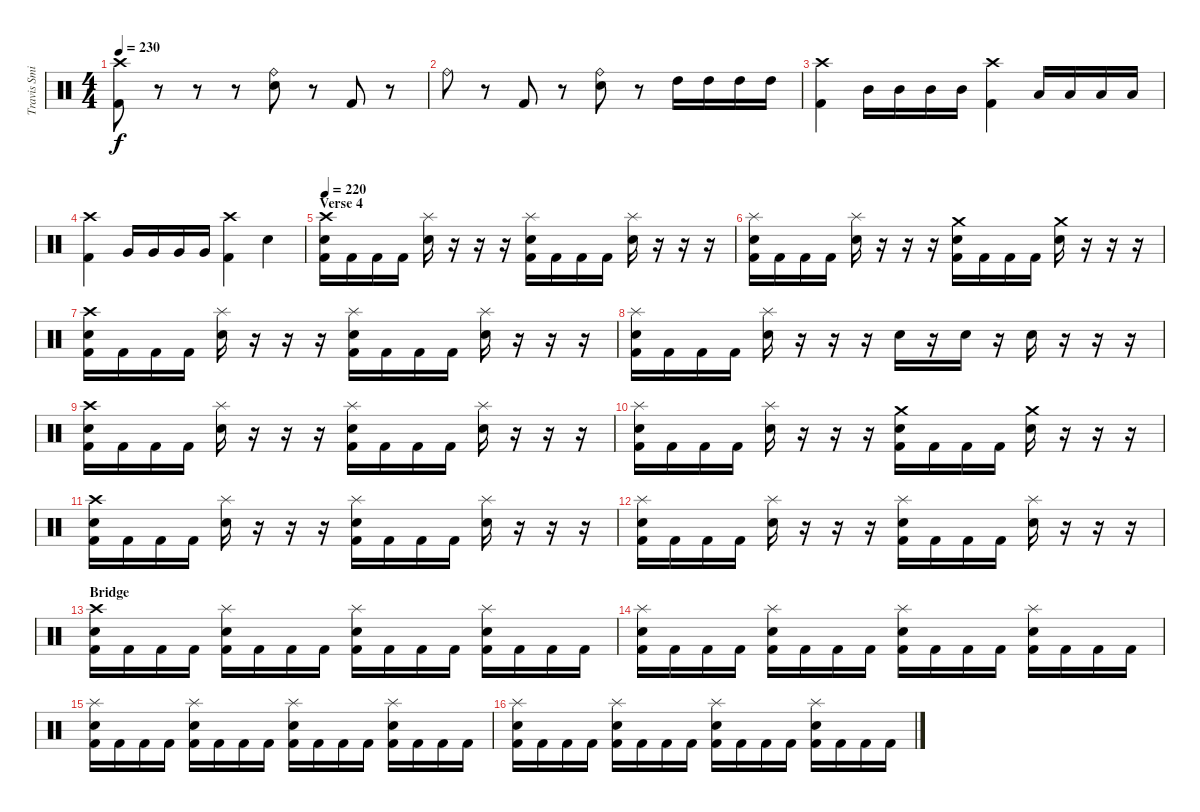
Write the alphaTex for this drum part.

\track ("Travis Smith" "Travis Smi") {instrument percussion}
\staff {score}
\articulation defaults
\ts (4 4)
\tempo 230
\clef neutral
\ks c
("Crash high (hit)" "Kick (hit) 2").8{dy f} r.8 r.8 r.8 ("Ride (bell)" "Electric Snare (hit)").8 r.8 "Kick (hit) 2".8 r.8 |
"Ride (bell)".8 r.8 "Kick (hit) 2".8 r.8 ("Ride (bell)" "Electric Snare (hit)").8 r.8 "High Tom (hit)".16 "High Tom (hit)".16 "High Tom (hit)".16 "High Tom (hit)".16 |
("Crash high (hit)" "Kick (hit) 2").4 "Mid Tom (hit)".16 "Mid Tom (hit)".16 "Mid Tom (hit)".16 "Mid Tom (hit)".16 ("Crash high (hit)" "Kick (hit) 2").4 "Low Tom (hit)".16 "Low Tom (hit)".16 "Low Tom (hit)".16 "Low Tom (hit)".16 |
("Crash high (hit)" "Kick (hit) 2").4 "Very Low Tom (hit)".16 "Very Low Tom (hit)".16 "Very Low Tom (hit)".16 "Very Low Tom (hit)".16 ("Crash high (hit)" "Kick (hit) 2").4 "Electric Snare (hit)".4 |
\section ("" "Verse 4")
\tempo 220
("Crash high (hit)" "Electric Snare (hit)" "Kick (hit) 2").16 "Kick (hit) 2".16 "Kick (hit) 2".16 "Kick (hit) 2".16 ("Splash (hit)" "Electric Snare (hit)").16 r.16 r.16 r.16 ("Splash (hit)" "Electric Snare (hit)" "Kick (hit) 2").16 "Kick (hit) 2".16 "Kick (hit) 2".16 "Kick (hit) 2".16 ("Splash (hit)" "Electric Snare (hit)").16 r.16 r.16 r.16 |
("Splash (hit)" "Electric Snare (hit)" "Kick (hit) 2").16 "Kick (hit) 2".16 "Kick (hit) 2".16 "Kick (hit) 2".16 ("Splash (hit)" "Electric Snare (hit)").16 r.16 r.16 r.16 ("Crash medium (hit)" "Electric Snare (hit)" "Kick (hit) 2").16 "Kick (hit) 2".16 "Kick (hit) 2".16 "Kick (hit) 2".16 ("Crash medium (hit)" "Electric Snare (hit)").16 r.16 r.16 r.16 |
("Crash high (hit)" "Electric Snare (hit)" "Kick (hit) 2").16 "Kick (hit) 2".16 "Kick (hit) 2".16 "Kick (hit) 2".16 ("Splash (hit)" "Electric Snare (hit)").16 r.16 r.16 r.16 ("Splash (hit)" "Electric Snare (hit)" "Kick (hit) 2").16 "Kick (hit) 2".16 "Kick (hit) 2".16 "Kick (hit) 2".16 ("Splash (hit)" "Electric Snare (hit)").16 r.16 r.16 r.16 |
("Splash (hit)" "Electric Snare (hit)" "Kick (hit) 2").16 "Kick (hit) 2".16 "Kick (hit) 2".16 "Kick (hit) 2".16 ("Splash (hit)" "Electric Snare (hit)").16 r.16 r.16 r.16 "Electric Snare (hit)".16 r.16 "Electric Snare (hit)".16 r.16 "Electric Snare (hit)".16 r.16 r.16 r.16 |
("Crash high (hit)" "Electric Snare (hit)" "Kick (hit) 2").16 "Kick (hit) 2".16 "Kick (hit) 2".16 "Kick (hit) 2".16 ("Splash (hit)" "Electric Snare (hit)").16 r.16 r.16 r.16 ("Splash (hit)" "Electric Snare (hit)" "Kick (hit) 2").16 "Kick (hit) 2".16 "Kick (hit) 2".16 "Kick (hit) 2".16 ("Splash (hit)" "Electric Snare (hit)").16 r.16 r.16 r.16 |
("Splash (hit)" "Electric Snare (hit)" "Kick (hit) 2").16 "Kick (hit) 2".16 "Kick (hit) 2".16 "Kick (hit) 2".16 ("Splash (hit)" "Electric Snare (hit)").16 r.16 r.16 r.16 ("Crash medium (hit)" "Electric Snare (hit)" "Kick (hit) 2").16 "Kick (hit) 2".16 "Kick (hit) 2".16 "Kick (hit) 2".16 ("Crash medium (hit)" "Electric Snare (hit)").16 r.16 r.16 r.16 |
("Crash high (hit)" "Electric Snare (hit)" "Kick (hit) 2").16 "Kick (hit) 2".16 "Kick (hit) 2".16 "Kick (hit) 2".16 ("Splash (hit)" "Electric Snare (hit)").16 r.16 r.16 r.16 ("Splash (hit)" "Electric Snare (hit)" "Kick (hit) 2").16 "Kick (hit) 2".16 "Kick (hit) 2".16 "Kick (hit) 2".16 ("Splash (hit)" "Electric Snare (hit)").16 r.16 r.16 r.16 |
("Splash (hit)" "Electric Snare (hit)" "Kick (hit) 2").16 "Kick (hit) 2".16 "Kick (hit) 2".16 "Kick (hit) 2".16 ("Splash (hit)" "Electric Snare (hit)").16 r.16 r.16 r.16 ("Splash (hit)" "Electric Snare (hit)" "Kick (hit) 2").16 "Kick (hit) 2".16 "Kick (hit) 2".16 "Kick (hit) 2".16 ("Splash (hit)" "Electric Snare (hit)").16 r.16 r.16 r.16 |
\section ("" "Bridge")
("Crash high (hit)" "Electric Snare (hit)" "Kick (hit) 2").16 "Kick (hit) 2".16 "Kick (hit) 2".16 "Kick (hit) 2".16 ("Splash (hit)" "Electric Snare (hit)" "Kick (hit) 2").16 "Kick (hit) 2".16 "Kick (hit) 2".16 "Kick (hit) 2".16 ("Splash (hit)" "Electric Snare (hit)" "Kick (hit) 2").16 "Kick (hit) 2".16 "Kick (hit) 2".16 "Kick (hit) 2".16 ("Splash (hit)" "Electric Snare (hit)" "Kick (hit) 2").16 "Kick (hit) 2".16 "Kick (hit) 2".16 "Kick (hit) 2".16 |
("Splash (hit)" "Electric Snare (hit)" "Kick (hit) 2").16 "Kick (hit) 2".16 "Kick (hit) 2".16 "Kick (hit) 2".16 ("Splash (hit)" "Electric Snare (hit)" "Kick (hit) 2").16 "Kick (hit) 2".16 "Kick (hit) 2".16 "Kick (hit) 2".16 ("Splash (hit)" "Electric Snare (hit)" "Kick (hit) 2").16 "Kick (hit) 2".16 "Kick (hit) 2".16 "Kick (hit) 2".16 ("Splash (hit)" "Electric Snare (hit)" "Kick (hit) 2").16 "Kick (hit) 2".16 "Kick (hit) 2".16 "Kick (hit) 2".16 |
("Splash (hit)" "Electric Snare (hit)" "Kick (hit) 2").16 "Kick (hit) 2".16 "Kick (hit) 2".16 "Kick (hit) 2".16 ("Splash (hit)" "Electric Snare (hit)" "Kick (hit) 2").16 "Kick (hit) 2".16 "Kick (hit) 2".16 "Kick (hit) 2".16 ("Splash (hit)" "Electric Snare (hit)" "Kick (hit) 2").16 "Kick (hit) 2".16 "Kick (hit) 2".16 "Kick (hit) 2".16 ("Splash (hit)" "Electric Snare (hit)" "Kick (hit) 2").16 "Kick (hit) 2".16 "Kick (hit) 2".16 "Kick (hit) 2".16 |
("Splash (hit)" "Electric Snare (hit)" "Kick (hit) 2").16 "Kick (hit) 2".16 "Kick (hit) 2".16 "Kick (hit) 2".16 ("Splash (hit)" "Electric Snare (hit)" "Kick (hit) 2").16 "Kick (hit) 2".16 "Kick (hit) 2".16 "Kick (hit) 2".16 ("Splash (hit)" "Electric Snare (hit)" "Kick (hit) 2").16 "Kick (hit) 2".16 "Kick (hit) 2".16 "Kick (hit) 2".16 ("Splash (hit)" "Electric Snare (hit)" "Kick (hit) 2").16 "Kick (hit) 2".16 "Kick (hit) 2".16 "Kick (hit) 2".16
